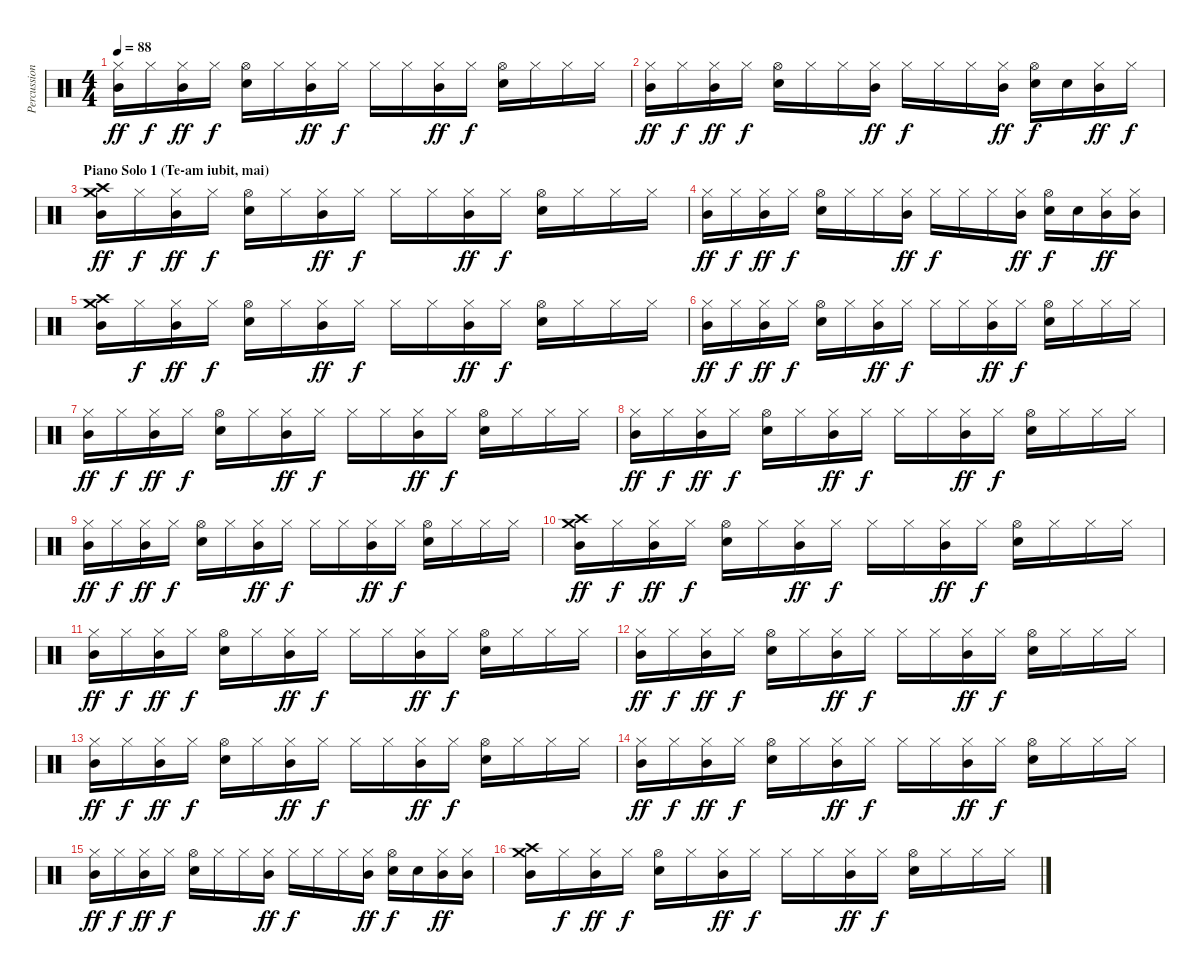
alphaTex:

\track ("Percussion" "Percussion") {instrument percussion}
\staff {score}
\articulation defaults
\ts (4 4)
\tempo 88
\clef neutral
\ks c
("Hi-Hat (closed)" "Mid Tom (hit)").16{dy ff} "Hi-Hat (closed)".16{dy f} ("Hi-Hat (closed)" "Mid Tom (hit)").16{dy ff} "Hi-Hat (closed)".16{dy f} ("Hi-Hat (open)" "Electric Snare (hit)").16 "Hi-Hat (closed)".16 ("Hi-Hat (closed)" "Mid Tom (hit)").16{dy ff} "Hi-Hat (closed)".16{dy f} "Hi-Hat (closed)".16 "Hi-Hat (closed)".16 ("Hi-Hat (closed)" "Mid Tom (hit)").16{dy ff} "Hi-Hat (closed)".16{dy f} ("Hi-Hat (open)" "Electric Snare (hit)").16 "Hi-Hat (closed)".16 "Hi-Hat (closed)".16 "Hi-Hat (closed)".16 |
("Hi-Hat (closed)" "Mid Tom (hit)").16{dy ff} "Hi-Hat (closed)".16{dy f} ("Hi-Hat (closed)" "Mid Tom (hit)").16{dy ff} "Hi-Hat (closed)".16{dy f} ("Hi-Hat (open)" "Electric Snare (hit)").16 "Hi-Hat (closed)".16 "Hi-Hat (closed)".16 ("Hi-Hat (closed)" "Mid Tom (hit)").16{dy ff} "Hi-Hat (closed)".16{dy f} "Hi-Hat (closed)".16 "Hi-Hat (closed)".16 ("Hi-Hat (closed)" "Mid Tom (hit)").16{dy ff} ("Hi-Hat (open)" "Electric Snare (hit)").16{dy f} "Electric Snare (hit)".16 ("Hi-Hat (closed)" "Mid Tom (hit)").16{dy ff} "Hi-Hat (closed)".16{dy f} |
\section ("" "Piano Solo 1 (Te-am iubit, mai)")
("Crash medium (hit)" "Crash high (hit)" "Mid Tom (hit)").16{dy ff} "Hi-Hat (closed)".16{dy f} ("Hi-Hat (closed)" "Mid Tom (hit)").16{dy ff} "Hi-Hat (closed)".16{dy f} ("Hi-Hat (open)" "Electric Snare (hit)").16 "Hi-Hat (closed)".16 ("Hi-Hat (closed)" "Mid Tom (hit)").16{dy ff} "Hi-Hat (closed)".16{dy f} "Hi-Hat (closed)".16 "Hi-Hat (closed)".16 ("Hi-Hat (closed)" "Mid Tom (hit)").16{dy ff} "Hi-Hat (closed)".16{dy f} ("Hi-Hat (open)" "Electric Snare (hit)").16 "Hi-Hat (closed)".16 "Hi-Hat (closed)".16 "Hi-Hat (closed)".16 |
("Hi-Hat (closed)" "Mid Tom (hit)").16{dy ff} "Hi-Hat (closed)".16{dy f} ("Hi-Hat (closed)" "Mid Tom (hit)").16{dy ff} "Hi-Hat (closed)".16{dy f} ("Hi-Hat (open)" "Electric Snare (hit)").16 "Hi-Hat (closed)".16 "Hi-Hat (closed)".16 ("Hi-Hat (closed)" "Mid Tom (hit)").16{dy ff} "Hi-Hat (closed)".16{dy f} "Hi-Hat (closed)".16 "Hi-Hat (closed)".16 ("Hi-Hat (closed)" "Mid Tom (hit)").16{dy ff} ("Hi-Hat (open)" "Electric Snare (hit)").16{dy f} "Electric Snare (hit)".16 ("Hi-Hat (closed)" "Mid Tom (hit)").16{dy ff} ("Hi-Hat (closed)" "Mid Tom (hit)").16 |
("Crash medium (hit)" "Crash high (hit)" "Mid Tom (hit)").16 "Hi-Hat (closed)".16{dy f} ("Hi-Hat (closed)" "Mid Tom (hit)").16{dy ff} "Hi-Hat (closed)".16{dy f} ("Hi-Hat (open)" "Electric Snare (hit)").16 "Hi-Hat (closed)".16 ("Hi-Hat (closed)" "Mid Tom (hit)").16{dy ff} "Hi-Hat (closed)".16{dy f} "Hi-Hat (closed)".16 "Hi-Hat (closed)".16 ("Hi-Hat (closed)" "Mid Tom (hit)").16{dy ff} "Hi-Hat (closed)".16{dy f} ("Hi-Hat (open)" "Electric Snare (hit)").16 "Hi-Hat (closed)".16 "Hi-Hat (closed)".16 "Hi-Hat (closed)".16 |
("Hi-Hat (closed)" "Mid Tom (hit)").16{dy ff} "Hi-Hat (closed)".16{dy f} ("Hi-Hat (closed)" "Mid Tom (hit)").16{dy ff} "Hi-Hat (closed)".16{dy f} ("Hi-Hat (open)" "Electric Snare (hit)").16 "Hi-Hat (closed)".16 ("Hi-Hat (closed)" "Mid Tom (hit)").16{dy ff} "Hi-Hat (closed)".16{dy f} "Hi-Hat (closed)".16 "Hi-Hat (closed)".16 ("Hi-Hat (closed)" "Mid Tom (hit)").16{dy ff} "Hi-Hat (closed)".16{dy f} ("Hi-Hat (open)" "Electric Snare (hit)").16 "Hi-Hat (closed)".16 "Hi-Hat (closed)".16 "Hi-Hat (closed)".16 |
("Hi-Hat (closed)" "Mid Tom (hit)").16{dy ff} "Hi-Hat (closed)".16{dy f} ("Hi-Hat (closed)" "Mid Tom (hit)").16{dy ff} "Hi-Hat (closed)".16{dy f} ("Hi-Hat (open)" "Electric Snare (hit)").16 "Hi-Hat (closed)".16 ("Hi-Hat (closed)" "Mid Tom (hit)").16{dy ff} "Hi-Hat (closed)".16{dy f} "Hi-Hat (closed)".16 "Hi-Hat (closed)".16 ("Hi-Hat (closed)" "Mid Tom (hit)").16{dy ff} "Hi-Hat (closed)".16{dy f} ("Hi-Hat (open)" "Electric Snare (hit)").16 "Hi-Hat (closed)".16 "Hi-Hat (closed)".16 "Hi-Hat (closed)".16 |
("Hi-Hat (closed)" "Mid Tom (hit)").16{dy ff} "Hi-Hat (closed)".16{dy f} ("Hi-Hat (closed)" "Mid Tom (hit)").16{dy ff} "Hi-Hat (closed)".16{dy f} ("Hi-Hat (open)" "Electric Snare (hit)").16 "Hi-Hat (closed)".16 ("Hi-Hat (closed)" "Mid Tom (hit)").16{dy ff} "Hi-Hat (closed)".16{dy f} "Hi-Hat (closed)".16 "Hi-Hat (closed)".16 ("Hi-Hat (closed)" "Mid Tom (hit)").16{dy ff} "Hi-Hat (closed)".16{dy f} ("Hi-Hat (open)" "Electric Snare (hit)").16 "Hi-Hat (closed)".16 "Hi-Hat (closed)".16 "Hi-Hat (closed)".16 |
("Hi-Hat (closed)" "Mid Tom (hit)").16{dy ff} "Hi-Hat (closed)".16{dy f} ("Hi-Hat (closed)" "Mid Tom (hit)").16{dy ff} "Hi-Hat (closed)".16{dy f} ("Hi-Hat (open)" "Electric Snare (hit)").16 "Hi-Hat (closed)".16 ("Hi-Hat (closed)" "Mid Tom (hit)").16{dy ff} "Hi-Hat (closed)".16{dy f} "Hi-Hat (closed)".16 "Hi-Hat (closed)".16 ("Hi-Hat (closed)" "Mid Tom (hit)").16{dy ff} "Hi-Hat (closed)".16{dy f} ("Hi-Hat (open)" "Electric Snare (hit)").16 "Hi-Hat (closed)".16 "Hi-Hat (closed)".16 "Hi-Hat (closed)".16 |
("Crash medium (hit)" "Crash high (hit)" "Mid Tom (hit)").16{dy ff} "Hi-Hat (closed)".16{dy f} ("Hi-Hat (closed)" "Mid Tom (hit)").16{dy ff} "Hi-Hat (closed)".16{dy f} ("Hi-Hat (open)" "Electric Snare (hit)").16 "Hi-Hat (closed)".16 ("Hi-Hat (closed)" "Mid Tom (hit)").16{dy ff} "Hi-Hat (closed)".16{dy f} "Hi-Hat (closed)".16 "Hi-Hat (closed)".16 ("Hi-Hat (closed)" "Mid Tom (hit)").16{dy ff} "Hi-Hat (closed)".16{dy f} ("Hi-Hat (open)" "Electric Snare (hit)").16 "Hi-Hat (closed)".16 "Hi-Hat (closed)".16 "Hi-Hat (closed)".16 |
("Hi-Hat (closed)" "Mid Tom (hit)").16{dy ff} "Hi-Hat (closed)".16{dy f} ("Hi-Hat (closed)" "Mid Tom (hit)").16{dy ff} "Hi-Hat (closed)".16{dy f} ("Hi-Hat (open)" "Electric Snare (hit)").16 "Hi-Hat (closed)".16 ("Hi-Hat (closed)" "Mid Tom (hit)").16{dy ff} "Hi-Hat (closed)".16{dy f} "Hi-Hat (closed)".16 "Hi-Hat (closed)".16 ("Hi-Hat (closed)" "Mid Tom (hit)").16{dy ff} "Hi-Hat (closed)".16{dy f} ("Hi-Hat (open)" "Electric Snare (hit)").16 "Hi-Hat (closed)".16 "Hi-Hat (closed)".16 "Hi-Hat (closed)".16 |
("Hi-Hat (closed)" "Mid Tom (hit)").16{dy ff} "Hi-Hat (closed)".16{dy f} ("Hi-Hat (closed)" "Mid Tom (hit)").16{dy ff} "Hi-Hat (closed)".16{dy f} ("Hi-Hat (open)" "Electric Snare (hit)").16 "Hi-Hat (closed)".16 ("Hi-Hat (closed)" "Mid Tom (hit)").16{dy ff} "Hi-Hat (closed)".16{dy f} "Hi-Hat (closed)".16 "Hi-Hat (closed)".16 ("Hi-Hat (closed)" "Mid Tom (hit)").16{dy ff} "Hi-Hat (closed)".16{dy f} ("Hi-Hat (open)" "Electric Snare (hit)").16 "Hi-Hat (closed)".16 "Hi-Hat (closed)".16 "Hi-Hat (closed)".16 |
("Hi-Hat (closed)" "Mid Tom (hit)").16{dy ff} "Hi-Hat (closed)".16{dy f} ("Hi-Hat (closed)" "Mid Tom (hit)").16{dy ff} "Hi-Hat (closed)".16{dy f} ("Hi-Hat (open)" "Electric Snare (hit)").16 "Hi-Hat (closed)".16 ("Hi-Hat (closed)" "Mid Tom (hit)").16{dy ff} "Hi-Hat (closed)".16{dy f} "Hi-Hat (closed)".16 "Hi-Hat (closed)".16 ("Hi-Hat (closed)" "Mid Tom (hit)").16{dy ff} "Hi-Hat (closed)".16{dy f} ("Hi-Hat (open)" "Electric Snare (hit)").16 "Hi-Hat (closed)".16 "Hi-Hat (closed)".16 "Hi-Hat (closed)".16 |
("Hi-Hat (closed)" "Mid Tom (hit)").16{dy ff} "Hi-Hat (closed)".16{dy f} ("Hi-Hat (closed)" "Mid Tom (hit)").16{dy ff} "Hi-Hat (closed)".16{dy f} ("Hi-Hat (open)" "Electric Snare (hit)").16 "Hi-Hat (closed)".16 ("Hi-Hat (closed)" "Mid Tom (hit)").16{dy ff} "Hi-Hat (closed)".16{dy f} "Hi-Hat (closed)".16 "Hi-Hat (closed)".16 ("Hi-Hat (closed)" "Mid Tom (hit)").16{dy ff} "Hi-Hat (closed)".16{dy f} ("Hi-Hat (open)" "Electric Snare (hit)").16 "Hi-Hat (closed)".16 "Hi-Hat (closed)".16 "Hi-Hat (closed)".16 |
("Hi-Hat (closed)" "Mid Tom (hit)").16{dy ff} "Hi-Hat (closed)".16{dy f} ("Hi-Hat (closed)" "Mid Tom (hit)").16{dy ff} "Hi-Hat (closed)".16{dy f} ("Hi-Hat (open)" "Electric Snare (hit)").16 "Hi-Hat (closed)".16 "Hi-Hat (closed)".16 ("Hi-Hat (closed)" "Mid Tom (hit)").16{dy ff} "Hi-Hat (closed)".16{dy f} "Hi-Hat (closed)".16 "Hi-Hat (closed)".16 ("Hi-Hat (closed)" "Mid Tom (hit)").16{dy ff} ("Hi-Hat (open)" "Electric Snare (hit)").16{dy f} "Electric Snare (hit)".16 ("Hi-Hat (closed)" "Mid Tom (hit)").16{dy ff} ("Hi-Hat (closed)" "Mid Tom (hit)").16 |
("Crash medium (hit)" "Crash high (hit)" "Mid Tom (hit)").16 "Hi-Hat (closed)".16{dy f} ("Hi-Hat (closed)" "Mid Tom (hit)").16{dy ff} "Hi-Hat (closed)".16{dy f} ("Hi-Hat (open)" "Electric Snare (hit)").16 "Hi-Hat (closed)".16 ("Hi-Hat (closed)" "Mid Tom (hit)").16{dy ff} "Hi-Hat (closed)".16{dy f} "Hi-Hat (closed)".16 "Hi-Hat (closed)".16 ("Hi-Hat (closed)" "Mid Tom (hit)").16{dy ff} "Hi-Hat (closed)".16{dy f} ("Hi-Hat (open)" "Electric Snare (hit)").16 "Hi-Hat (closed)".16 "Hi-Hat (closed)".16 "Hi-Hat (closed)".16
